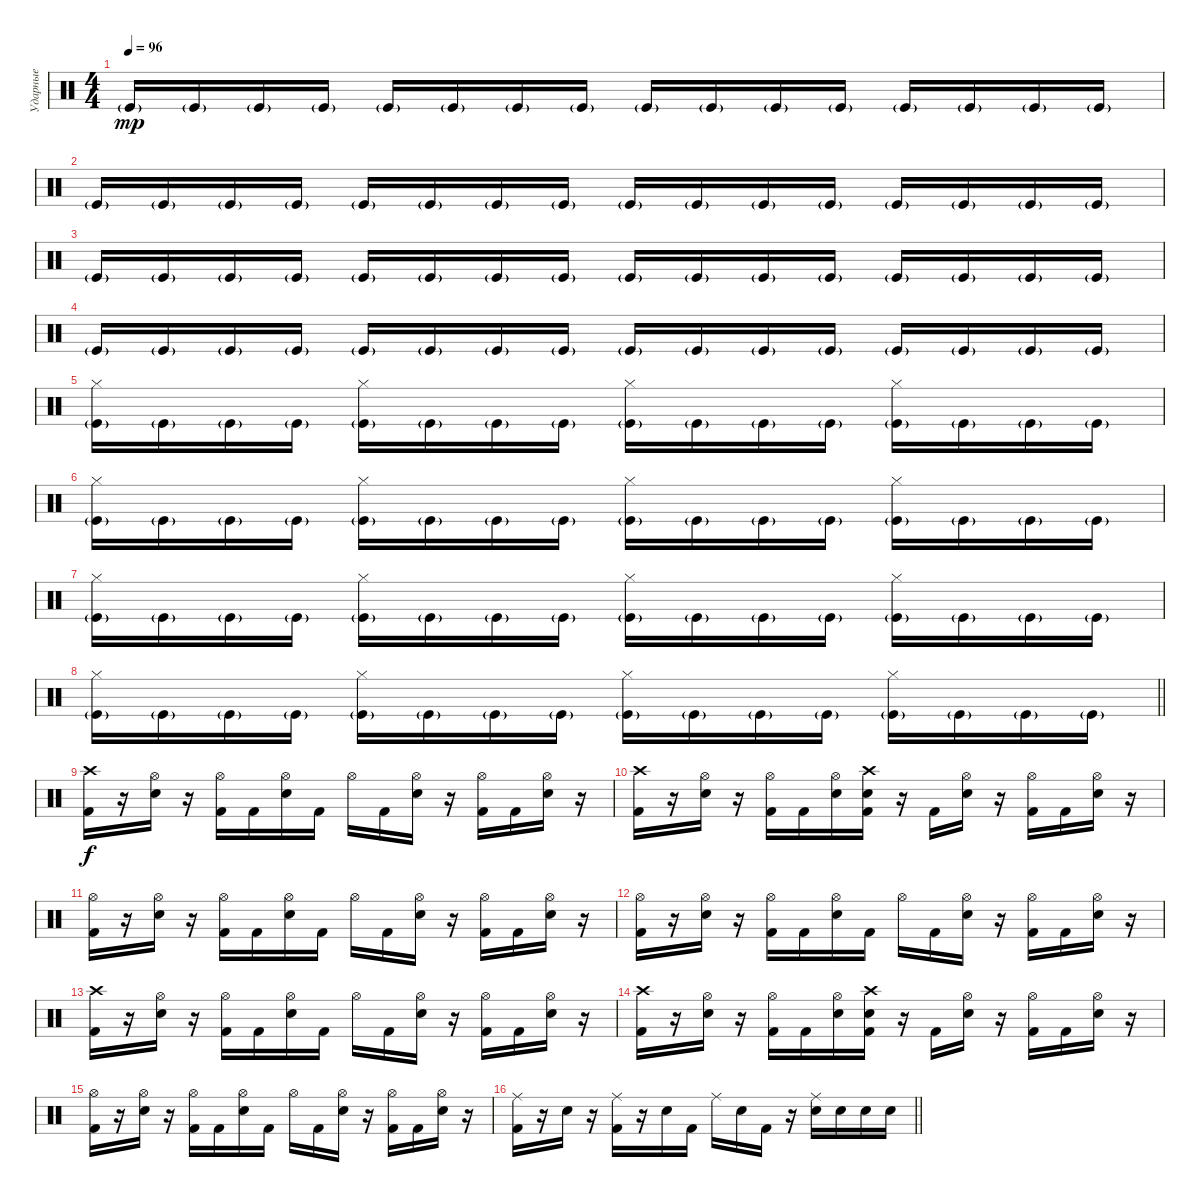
\track ("Ударные" "Ударные") {instrument percussion}
\staff {score}
\articulation defaults
\ts (4 4)
\section ("" "")
\tempo 96
\clef neutral
\ks c "Kick (hit)"{g}.16{dy mp} "Kick (hit)"{g}.16 "Kick (hit)"{g}.16 "Kick (hit)"{g}.16 "Kick (hit)"{g}.16 "Kick (hit)"{g}.16 "Kick (hit)"{g}.16 "Kick (hit)"{g}.16 "Kick (hit)"{g}.16 "Kick (hit)"{g}.16 "Kick (hit)"{g}.16 "Kick (hit)"{g}.16 "Kick (hit)"{g}.16 "Kick (hit)"{g}.16 "Kick (hit)"{g}.16 "Kick (hit)"{g}.16
|
"Kick (hit)"{g}.16 "Kick (hit)"{g}.16 "Kick (hit)"{g}.16 "Kick (hit)"{g}.16 "Kick (hit)"{g}.16 "Kick (hit)"{g}.16 "Kick (hit)"{g}.16 "Kick (hit)"{g}.16 "Kick (hit)"{g}.16 "Kick (hit)"{g}.16 "Kick (hit)"{g}.16 "Kick (hit)"{g}.16 "Kick (hit)"{g}.16 "Kick (hit)"{g}.16 "Kick (hit)"{g}.16 "Kick (hit)"{g}.16 |
"Kick (hit)"{g}.16 "Kick (hit)"{g}.16 "Kick (hit)"{g}.16 "Kick (hit)"{g}.16 "Kick (hit)"{g}.16 "Kick (hit)"{g}.16 "Kick (hit)"{g}.16 "Kick (hit)"{g}.16 "Kick (hit)"{g}.16 "Kick (hit)"{g}.16 "Kick (hit)"{g}.16 "Kick (hit)"{g}.16 "Kick (hit)"{g}.16 "Kick (hit)"{g}.16 "Kick (hit)"{g}.16 "Kick (hit)"{g}.16 |
"Kick (hit)"{g}.16 "Kick (hit)"{g}.16 "Kick (hit)"{g}.16 "Kick (hit)"{g}.16 "Kick (hit)"{g}.16 "Kick (hit)"{g}.16 "Kick (hit)"{g}.16 "Kick (hit)"{g}.16 "Kick (hit)"{g}.16 "Kick (hit)"{g}.16 "Kick (hit)"{g}.16 "Kick (hit)"{g}.16 "Kick (hit)"{g}.16 "Kick (hit)"{g}.16 "Kick (hit)"{g}.16 "Kick (hit)"{g}.16 |
("Hi-Hat (closed)" "Kick (hit)"{g}).16 "Kick (hit)"{g}.16 "Kick (hit)"{g}.16 "Kick (hit)"{g}.16 ("Hi-Hat (closed)" "Kick (hit)"{g}).16 "Kick (hit)"{g}.16 "Kick (hit)"{g}.16 "Kick (hit)"{g}.16 ("Hi-Hat (closed)" "Kick (hit)"{g}).16 "Kick (hit)"{g}.16 "Kick (hit)"{g}.16 "Kick (hit)"{g}.16 ("Hi-Hat (closed)" "Kick (hit)"{g}).16 "Kick (hit)"{g}.16 "Kick (hit)"{g}.16 "Kick (hit)"{g}.16 |
("Hi-Hat (closed)" "Kick (hit)"{g}).16 "Kick (hit)"{g}.16 "Kick (hit)"{g}.16 "Kick (hit)"{g}.16 ("Hi-Hat (closed)" "Kick (hit)"{g}).16 "Kick (hit)"{g}.16 "Kick (hit)"{g}.16 "Kick (hit)"{g}.16 ("Hi-Hat (closed)" "Kick (hit)"{g}).16 "Kick (hit)"{g}.16 "Kick (hit)"{g}.16 "Kick (hit)"{g}.16 ("Hi-Hat (closed)" "Kick (hit)"{g}).16 "Kick (hit)"{g}.16 "Kick (hit)"{g}.16 "Kick (hit)"{g}.16 |
("Hi-Hat (closed)" "Kick (hit)"{g}).16 "Kick (hit)"{g}.16 "Kick (hit)"{g}.16 "Kick (hit)"{g}.16 ("Hi-Hat (closed)" "Kick (hit)"{g}).16 "Kick (hit)"{g}.16 "Kick (hit)"{g}.16 "Kick (hit)"{g}.16 ("Hi-Hat (closed)" "Kick (hit)"{g}).16 "Kick (hit)"{g}.16 "Kick (hit)"{g}.16 "Kick (hit)"{g}.16 ("Hi-Hat (closed)" "Kick (hit)"{g}).16 "Kick (hit)"{g}.16 "Kick (hit)"{g}.16 "Kick (hit)"{g}.16 |
\barLineRight lightlight
("Hi-Hat (closed)" "Kick (hit)"{g}).16 "Kick (hit)"{g}.16 "Kick (hit)"{g}.16 "Kick (hit)"{g}.16 ("Hi-Hat (closed)" "Kick (hit)"{g}).16 "Kick (hit)"{g}.16 "Kick (hit)"{g}.16 "Kick (hit)"{g}.16 ("Hi-Hat (closed)" "Kick (hit)"{g}).16 "Kick (hit)"{g}.16 "Kick (hit)"{g}.16 "Kick (hit)"{g}.16 ("Hi-Hat (closed)" "Kick (hit)"{g}).16 "Kick (hit)"{g}.16 "Kick (hit)"{g}.16 "Kick (hit)"{g}.16 |
\section ("" "")
("Crash high (hit)" "Kick (hit) 2").16{dy f} r.16 ("Hi-Hat (open)" "Electric Snare (hit)").16 r.16 ("Hi-Hat (open)" "Kick (hit) 2").16 "Kick (hit) 2".16 ("Hi-Hat (open)" "Electric Snare (hit)").16 "Kick (hit) 2".16 "Hi-Hat (open)".16 "Kick (hit) 2".16 ("Hi-Hat (open)" "Electric Snare (hit)").16 r.16 ("Hi-Hat (open)" "Kick (hit) 2").16 "Kick (hit) 2".16 ("Hi-Hat (open)" "Electric Snare (hit)").16 r.16 |
("Crash high (hit)" "Kick (hit) 2").16 r.16 ("Hi-Hat (open)" "Electric Snare (hit)").16 r.16 ("Hi-Hat (open)" "Kick (hit) 2").16 "Kick (hit) 2".16 ("Hi-Hat (open)" "Electric Snare (hit)").16 ("Crash high (hit)" "Electric Snare (hit)" "Kick (hit) 2").16 r.16 "Kick (hit) 2".16 ("Hi-Hat (open)" "Electric Snare (hit)").16 r.16 ("Hi-Hat (open)" "Kick (hit) 2").16 "Kick (hit) 2".16 ("Hi-Hat (open)" "Electric Snare (hit)").16 r.16 |
("Hi-Hat (open)" "Kick (hit) 2").16 r.16 ("Hi-Hat (open)" "Electric Snare (hit)").16 r.16 ("Hi-Hat (open)" "Kick (hit) 2").16 "Kick (hit) 2".16 ("Hi-Hat (open)" "Electric Snare (hit)").16 "Kick (hit) 2".16 "Hi-Hat (open)".16 "Kick (hit) 2".16 ("Hi-Hat (open)" "Electric Snare (hit)").16 r.16 ("Hi-Hat (open)" "Kick (hit) 2").16 "Kick (hit) 2".16 ("Hi-Hat (open)" "Electric Snare (hit)").16 r.16 |
("Hi-Hat (open)" "Kick (hit) 2").16 r.16 ("Hi-Hat (open)" "Electric Snare (hit)").16 r.16 ("Hi-Hat (open)" "Kick (hit) 2").16 "Kick (hit) 2".16 ("Hi-Hat (open)" "Electric Snare (hit)").16 "Kick (hit) 2".16 "Hi-Hat (open)".16 "Kick (hit) 2".16 ("Hi-Hat (open)" "Electric Snare (hit)").16 r.16 ("Hi-Hat (open)" "Kick (hit) 2").16 "Kick (hit) 2".16 ("Hi-Hat (open)" "Electric Snare (hit)").16 r.16 |
("Crash high (hit)" "Kick (hit) 2").16 r.16 ("Hi-Hat (open)" "Electric Snare (hit)").16 r.16 ("Hi-Hat (open)" "Kick (hit) 2").16 "Kick (hit) 2".16 ("Hi-Hat (open)" "Electric Snare (hit)").16 "Kick (hit) 2".16 "Hi-Hat (open)".16 "Kick (hit) 2".16 ("Hi-Hat (open)" "Electric Snare (hit)").16 r.16 ("Hi-Hat (open)" "Kick (hit) 2").16 "Kick (hit) 2".16 ("Hi-Hat (open)" "Electric Snare (hit)").16 r.16 |
("Crash high (hit)" "Kick (hit) 2").16 r.16 ("Hi-Hat (open)" "Electric Snare (hit)").16 r.16 ("Hi-Hat (open)" "Kick (hit) 2").16 "Kick (hit) 2".16 ("Hi-Hat (open)" "Electric Snare (hit)").16 ("Crash high (hit)" "Electric Snare (hit)" "Kick (hit) 2").16 r.16 "Kick (hit) 2".16 ("Hi-Hat (open)" "Electric Snare (hit)").16 r.16 ("Hi-Hat (open)" "Kick (hit) 2").16 "Kick (hit) 2".16 ("Hi-Hat (open)" "Electric Snare (hit)").16 r.16 |
("Hi-Hat (open)" "Kick (hit) 2").16 r.16 ("Hi-Hat (open)" "Electric Snare (hit)").16 r.16 ("Hi-Hat (open)" "Kick (hit) 2").16 "Kick (hit) 2".16 ("Hi-Hat (open)" "Electric Snare (hit)").16 "Kick (hit) 2".16 "Hi-Hat (open)".16 "Kick (hit) 2".16 ("Hi-Hat (open)" "Electric Snare (hit)").16 r.16 ("Hi-Hat (open)" "Kick (hit) 2").16 "Kick (hit) 2".16 ("Hi-Hat (open)" "Electric Snare (hit)").16 r.16 |
\barLineRight lightlight
("Ride (middle)" "Kick (hit) 2").16 r.16 "Electric Snare (hit)".16 r.16 ("Ride (middle)" "Kick (hit) 2").16 r.16 "Electric Snare (hit)".16 "Kick (hit) 2".16 "Ride (middle)".16 "Electric Snare (hit)".16 "Kick (hit) 2".16 r.16 ("Ride (middle)" "Electric Snare (hit)").16 "Electric Snare (hit)".16 "Electric Snare (hit)".16 "Electric Snare (hit)".16
